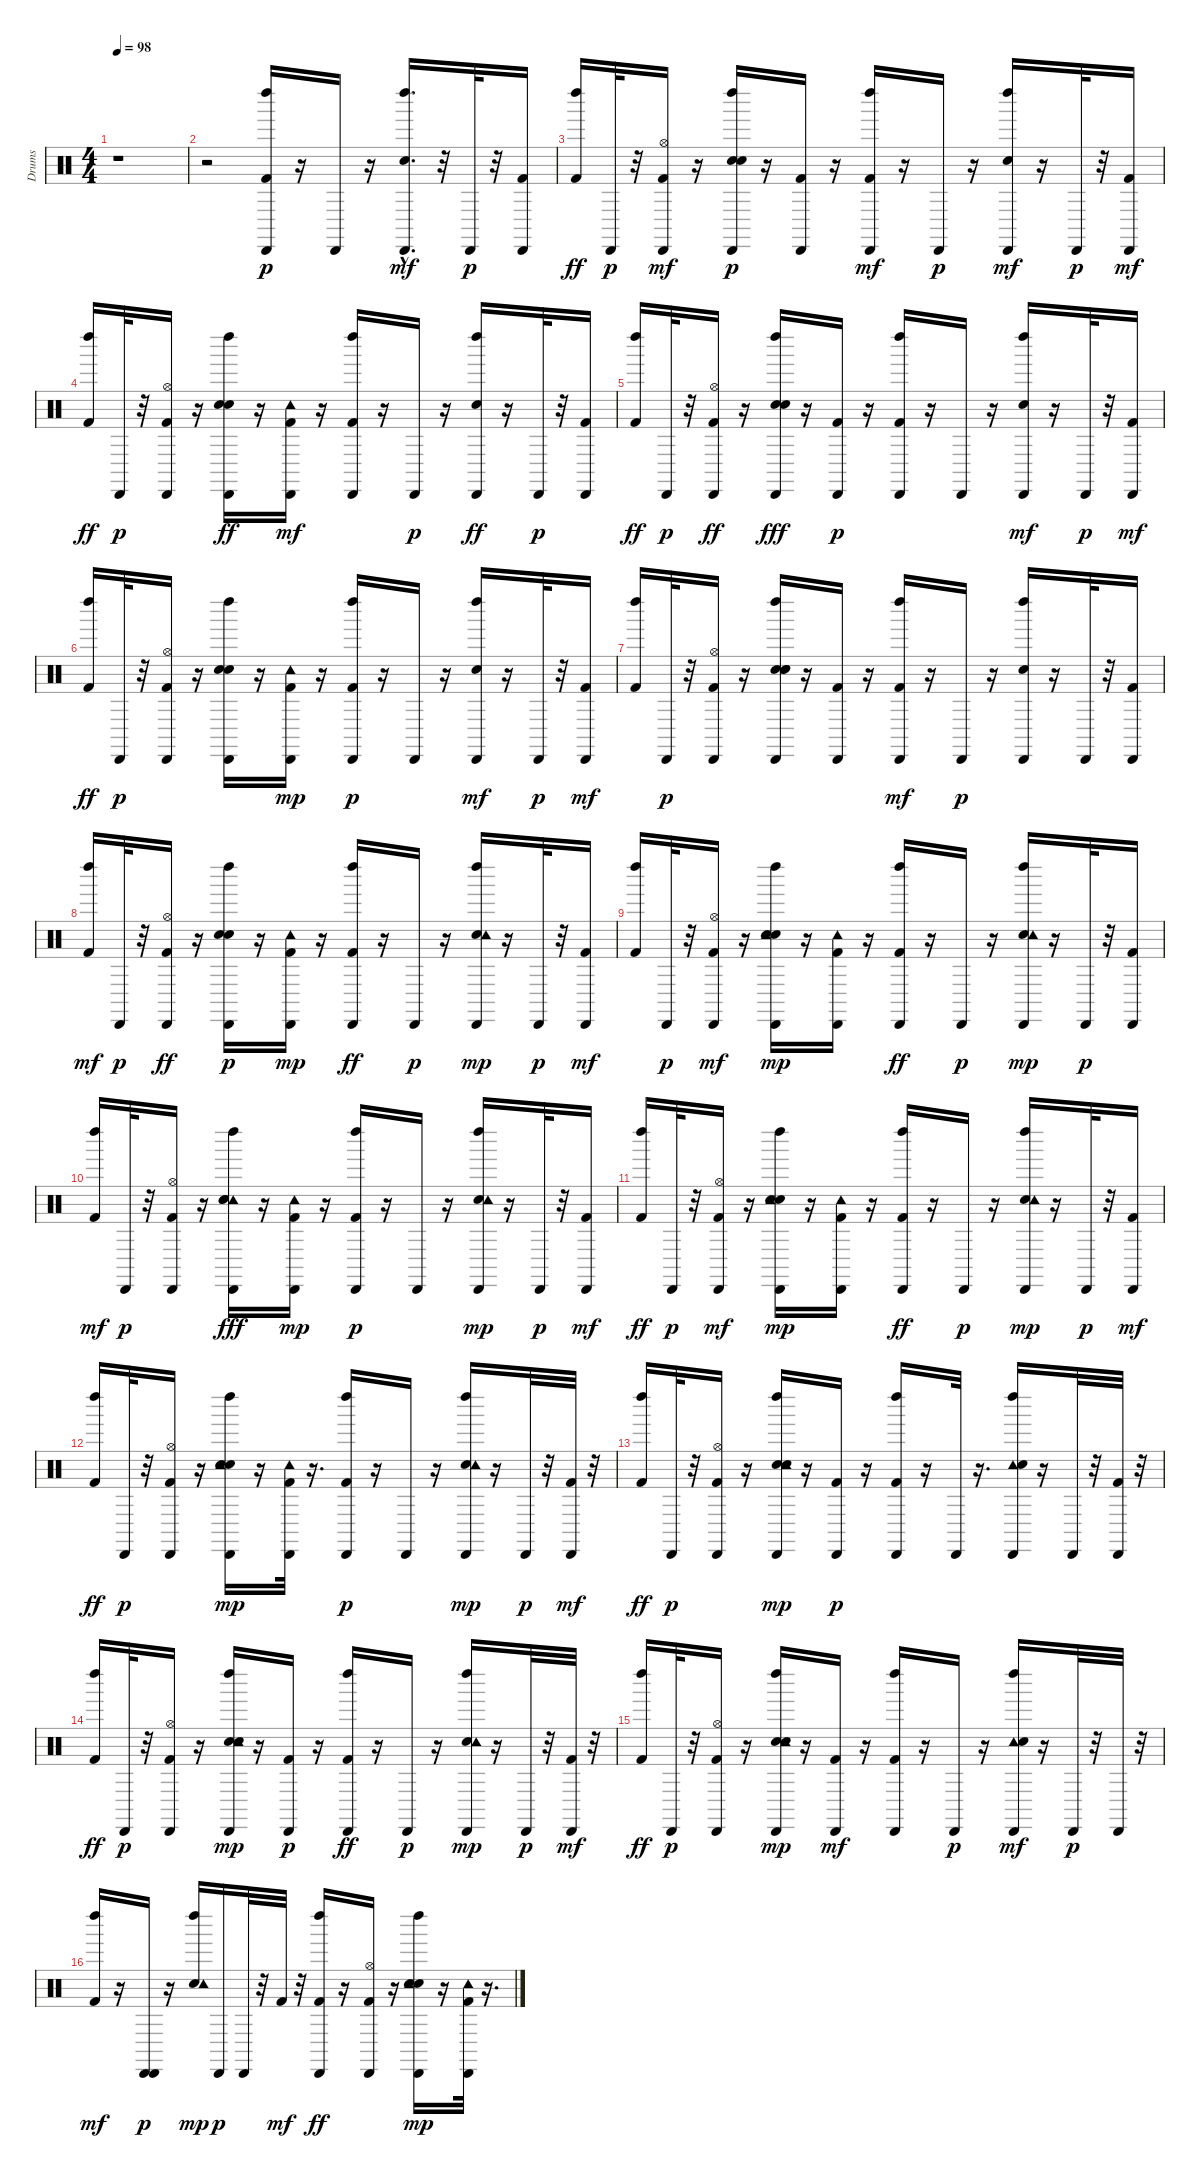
\track ("Drums" "Drums") {instrument percussion}
\staff {score}
\articulation defaults
\ts (4 4)
\tempo 98
\clef neutral
\ks c
r.1{dy p} |
r.2 ("Left Maraca (hit)" "Kick (hit) 2" "Cabasa (hit)").16 r.16 "Cabasa (hit)".16 r.16 ("Left Maraca (hit)" "Cabasa (hit)"{hac} "Electric Snare (hit)").16{d dy mf} r.32 "Cabasa (hit)".32{dy p} r.32 ("Kick (hit) 2" "Cabasa (hit)").16 |
("Kick (hit) 2" "Left Maraca (hit)").16{dy ff} "Cabasa (hit)".32{dy p} r.32 ("Cabasa (hit)" "Hi-Hat (open)" "Kick (hit) 2").16{dy mf} r.16 ("Hand Clap (hit)" "Left Maraca (hit)" "Electric Snare (hit)" "Cabasa (hit)").16{dy p} r.16 ("Kick (hit) 2" "Cabasa (hit)").16 r.16 ("Cabasa (hit)" "Left Maraca (hit)" "Kick (hit) 2").16{dy mf} r.16 "Cabasa (hit)".16{dy p} r.16 ("Cabasa (hit)" "Left Maraca (hit)" "Electric Snare (hit)").16{dy mf} r.16 "Cabasa (hit)".32{dy p} r.32 ("Cabasa (hit)" "Kick (hit) 2").16{dy mf} |
("Kick (hit) 2" "Left Maraca (hit)").16{dy ff} "Cabasa (hit)".32{dy p} r.32 ("Kick (hit) 2" "Hi-Hat (open)" "Cabasa (hit)").16 r.16 ("Hand Clap (hit)" "Electric Snare (hit)" "Cabasa (hit)" "Left Maraca (hit)").16{dy ff} r.16 ("Tambourine (hit)" "Cabasa (hit)" "Kick (hit) 2").16{dy mf} r.16 ("Left Maraca (hit)" "Cabasa (hit)" "Kick (hit) 2").16 r.16 "Cabasa (hit)".16{dy p} r.16 ("Cabasa (hit)" "Electric Snare (hit)" "Left Maraca (hit)").16{dy ff} r.16 "Cabasa (hit)".32{dy p} r.32 ("Kick (hit) 2" "Cabasa (hit)").16 |
("Kick (hit) 2" "Left Maraca (hit)").16{dy ff} "Cabasa (hit)".32{dy p} r.32 ("Kick (hit) 2" "Cabasa (hit)" "Hi-Hat (open)").16{dy ff} r.16 ("Cabasa (hit)" "Left Maraca (hit)" "Electric Snare (hit)" "Hand Clap (hit)").16{dy fff} r.16 ("Kick (hit) 2" "Cabasa (hit)").16{dy p} r.16 ("Kick (hit) 2" "Left Maraca (hit)" "Cabasa (hit)").16 r.16 "Cabasa (hit)".16 r.16 ("Cabasa (hit)" "Left Maraca (hit)" "Electric Snare (hit)").16{dy mf} r.16 "Cabasa (hit)".32{dy p} r.32 ("Cabasa (hit)" "Kick (hit) 2").16{dy mf} |
("Kick (hit) 2" "Left Maraca (hit)").16{dy ff} "Cabasa (hit)".32{dy p} r.32 ("Kick (hit) 2" "Hi-Hat (open)" "Cabasa (hit)").16 r.16 ("Electric Snare (hit)" "Hand Clap (hit)" "Left Maraca (hit)" "Cabasa (hit)").16 r.16 ("Kick (hit) 2" "Cabasa (hit)" "Tambourine (hit)").16{dy mp} r.16 ("Kick (hit) 2" "Left Maraca (hit)" "Cabasa (hit)").16{dy p} r.16 "Cabasa (hit)".16 r.16 ("Cabasa (hit)" "Left Maraca (hit)" "Electric Snare (hit)").16{dy mf} r.16 "Cabasa (hit)".32{dy p} r.32 ("Cabasa (hit)" "Kick (hit) 2").16{dy mf} |
("Left Maraca (hit)" "Kick (hit) 2").16 "Cabasa (hit)".32{dy p} r.32 ("Hi-Hat (open)" "Kick (hit) 2" "Cabasa (hit)").16 r.16 ("Snare (hit) 2" "Hand Clap (hit)" "Electric Snare (hit)" "Left Maraca (hit)" "Cabasa (hit)").16 r.16 ("Kick (hit) 2" "Cabasa (hit)").16 r.16 ("Left Maraca (hit)" "Cabasa (hit)" "Kick (hit) 2").16{dy mf} r.16 "Cabasa (hit)".16{dy p} r.16 ("Electric Snare (hit)" "Left Maraca (hit)" "Cabasa (hit)").16 r.16 "Cabasa (hit)".32 r.32 ("Kick (hit) 2" "Cabasa (hit)").16 |
("Left Maraca (hit)" "Kick (hit) 2").16{dy mf} "Cabasa (hit)".32{dy p} r.32 ("Kick (hit) 2" "Cabasa (hit)" "Hi-Hat (open)").16{dy ff} r.16 ("Electric Snare (hit)" "Left Maraca (hit)" "Hand Clap (hit)" "Cabasa (hit)").16{dy p} r.16 ("Kick (hit) 2" "Cabasa (hit)" "Tambourine (hit)").16{dy mp} r.16 ("Kick (hit) 2" "Cabasa (hit)" "Left Maraca (hit)").16{dy ff} r.16 "Cabasa (hit)".16{dy p} r.16 ("Cabasa (hit)" "Electric Snare (hit)" "Left Maraca (hit)" "Tambourine (hit)").16{dy mp} r.16 "Cabasa (hit)".32{dy p} r.32 ("Cabasa (hit)" "Kick (hit) 2").16{dy mf} |
("Left Maraca (hit)" "Kick (hit) 2").16 "Cabasa (hit)".32{dy p} r.32 ("Hi-Hat (open)" "Cabasa (hit)" "Kick (hit) 2").16{dy mf} r.16 ("Cabasa (hit)" "Left Maraca (hit)" "Hand Clap (hit)" "Electric Snare (hit)" "Tambourine (hit)").16{dy mp} r.16 ("Kick (hit) 2" "Cabasa (hit)" "Tambourine (hit)").16 r.16 ("Kick (hit) 2" "Cabasa (hit)" "Left Maraca (hit)").16{dy ff} r.16 "Cabasa (hit)".16{dy p} r.16 ("Electric Snare (hit)" "Cabasa (hit)" "Left Maraca (hit)" "Tambourine (hit)").16{dy mp} r.16 "Cabasa (hit)".32{dy p} r.32 ("Kick (hit) 2" "Cabasa (hit)").16 |
("Left Maraca (hit)" "Kick (hit) 2").16{dy mf} "Cabasa (hit)".32{dy p} r.32 ("Kick (hit) 2" "Hi-Hat (open)" "Cabasa (hit)").16 r.16 ("Tambourine (hit)" "Cabasa (hit)" "Left Maraca (hit)" "Electric Snare (hit)" "Hand Clap (hit)").16{dy fff} r.16 ("Kick (hit) 2" "Cabasa (hit)" "Tambourine (hit)").16{dy mp} r.16 ("Kick (hit) 2" "Left Maraca (hit)" "Cabasa (hit)").16{dy p} r.16 "Cabasa (hit)".16 r.16 ("Left Maraca (hit)" "Electric Snare (hit)" "Cabasa (hit)" "Tambourine (hit)").16{dy mp} r.16 "Cabasa (hit)".32{dy p} r.32 ("Cabasa (hit)" "Kick (hit) 2").16{dy mf} |
("Kick (hit) 2" "Left Maraca (hit)").16{dy ff} "Cabasa (hit)".32{dy p} r.32 ("Cabasa (hit)" "Hi-Hat (open)" "Kick (hit) 2").16{dy mf} r.16 ("Cabasa (hit)" "Hand Clap (hit)" "Electric Snare (hit)" "Left Maraca (hit)" "Tambourine (hit)").16{dy mp} r.16 ("Kick (hit) 2" "Cabasa (hit)" "Tambourine (hit)").16 r.16 ("Kick (hit) 2" "Cabasa (hit)" "Left Maraca (hit)").16{dy ff} r.16 "Cabasa (hit)".16{dy p} r.16 ("Electric Snare (hit)" "Cabasa (hit)" "Left Maraca (hit)" "Tambourine (hit)").16{dy mp} r.16 "Cabasa (hit)".32{dy p} r.32 ("Cabasa (hit)" "Kick (hit) 2").16{dy mf} |
("Kick (hit) 2" "Left Maraca (hit)").16{dy ff} "Cabasa (hit)".32{dy p} r.32 ("Kick (hit) 2" "Hi-Hat (open)" "Cabasa (hit)").16 r.16 ("Cabasa (hit)" "Hand Clap (hit)" "Electric Snare (hit)" "Left Maraca (hit)" "Tambourine (hit)").16{dy mp} r.16 ("Cabasa (hit)" "Kick (hit) 2" "Tambourine (hit)").32 r.16{d} ("Left Maraca (hit)" "Kick (hit) 2" "Cabasa (hit)").16{dy p} r.16 "Cabasa (hit)".16 r.16 ("Cabasa (hit)" "Electric Snare (hit)" "Left Maraca (hit)" "Tambourine (hit)").16{dy mp} r.16 "Cabasa (hit)".32{dy p} r.32 ("Cabasa (hit)" "Kick (hit) 2").32{dy mf} r.32 |
("Kick (hit) 2" "Left Maraca (hit)").16{dy ff} "Cabasa (hit)".32{dy p} r.32 ("Hi-Hat (open)" "Kick (hit) 2" "Cabasa (hit)").16 r.16 ("Left Maraca (hit)" "Hand Clap (hit)" "Cabasa (hit)" "Electric Snare (hit)" "Tambourine (hit)").16{dy mp} r.16 ("Kick (hit) 2" "Cabasa (hit)").16{dy p} r.16 ("Kick (hit) 2" "Left Maraca (hit)" "Cabasa (hit)").16 r.16 "Cabasa (hit)".32 r.16{d} ("Tambourine (hit)" "Left Maraca (hit)" "Electric Snare (hit)" "Cabasa (hit)").16 r.16 "Cabasa (hit)".32 r.32 ("Kick (hit) 2" "Cabasa (hit)").32 r.32 |
("Kick (hit) 2" "Left Maraca (hit)").16{dy ff} "Cabasa (hit)".32{dy p} r.32 ("Kick (hit) 2" "Hi-Hat (open)" "Cabasa (hit)").16 r.16 ("Left Maraca (hit)" "Electric Snare (hit)" "Cabasa (hit)" "Hand Clap (hit)" "Tambourine (hit)").16{dy mp} r.16 ("Kick (hit) 2" "Cabasa (hit)").16{dy p} r.16 ("Kick (hit) 2" "Cabasa (hit)" "Left Maraca (hit)").16{dy ff} r.16 "Cabasa (hit)".16{dy p} r.16 ("Cabasa (hit)" "Left Maraca (hit)" "Electric Snare (hit)" "Tambourine (hit)").16{dy mp} r.16 "Cabasa (hit)".32{dy p} r.32 ("Cabasa (hit)" "Kick (hit) 2").32{dy mf} r.32 |
("Kick (hit) 2" "Left Maraca (hit)").16{dy ff} "Cabasa (hit)".32{dy p} r.32 ("Kick (hit) 2" "Hi-Hat (open)" "Cabasa (hit)").16 r.16 ("Cabasa (hit)" "Left Maraca (hit)" "Electric Snare (hit)" "Hand Clap (hit)" "Tambourine (hit)").16{dy mp} r.16 ("Cabasa (hit)" "Kick (hit) 2").16{dy mf} r.16 ("Left Maraca (hit)" "Cabasa (hit)" "Kick (hit) 2").16 r.16 "Cabasa (hit)".16{dy p} r.16 ("Tambourine (hit)" "Cabasa (hit)" "Left Maraca (hit)" "Electric Snare (hit)").16{dy mf} r.16 "Cabasa (hit)".32{dy p} r.32 "Cabasa (hit)".32 r.32 |
("Left Maraca (hit)" "Kick (hit) 2").16{dy mf} r.16 ("Cabasa (hit)" "Cabasa (hit)").16{dy p} r.16 ("Left Maraca (hit)" "Electric Snare (hit)" "Tambourine (hit)").16{dy mp} "Cabasa (hit)".16{dy p} "Cabasa (hit)".32 r.32 "Kick (hit) 2".32{dy mf} r.32 ("Cabasa (hit)" "Kick (hit) 2" "Left Maraca (hit)").16{dy ff} r.16 ("Cabasa (hit)" "Kick (hit) 2" "Hi-Hat (open)").16 r.16 ("Electric Snare (hit)" "Hand Clap (hit)" "Left Maraca (hit)" "Cabasa (hit)" "Tambourine (hit)").16{dy mp} r.16 ("Kick (hit) 2" "Cabasa (hit)" "Tambourine (hit)").32 r.16{d}
